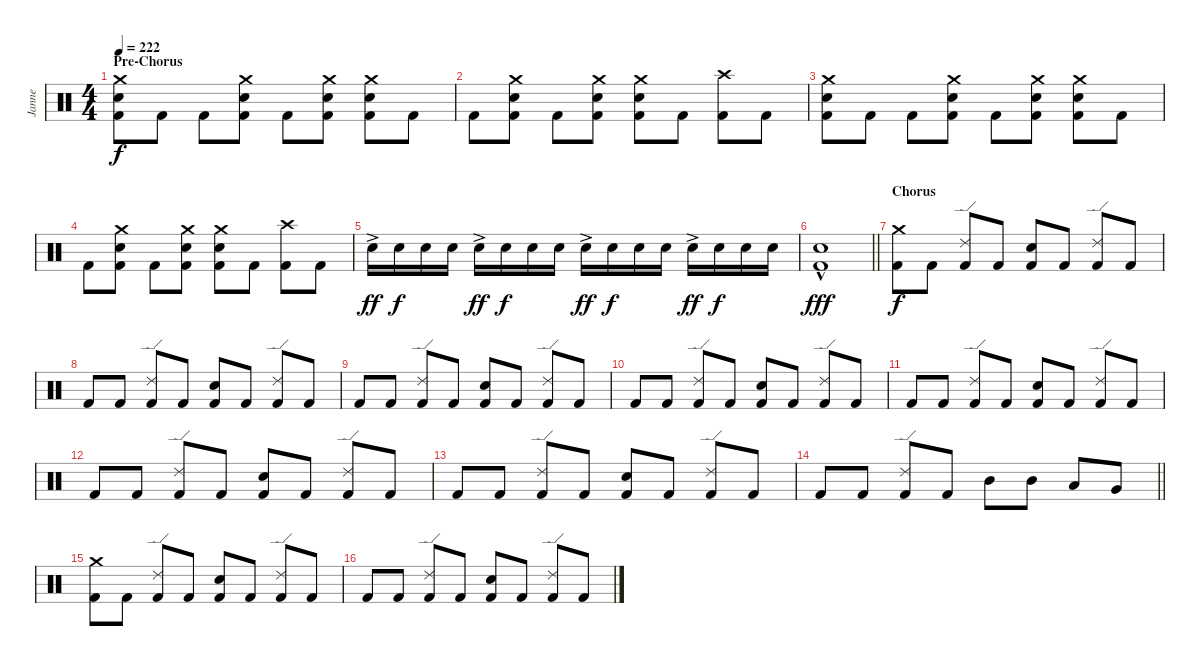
\track ("Janne" "Janne") {instrument percussion}
\staff {score}
\articulation defaults
\ts (4 4)
\section ("" "Pre-Chorus")
\tempo 222
\clef neutral
\ks c
("Kick (hit) 2" "Electric Snare (hit)" "Crash medium (hit)").8{dy f} "Kick (hit) 2".8 "Kick (hit) 2".8 ("Kick (hit) 2" "Electric Snare (hit)" "Crash medium (hit)").8 "Kick (hit) 2".8 ("Kick (hit) 2" "Electric Snare (hit)" "Crash medium (hit)").8 ("Kick (hit) 2" "Electric Snare (hit)" "Crash medium (hit)").8 "Kick (hit) 2".8 |
"Kick (hit) 2".8 ("Kick (hit) 2" "Electric Snare (hit)" "Crash medium (hit)").8 "Kick (hit) 2".8 ("Kick (hit) 2" "Electric Snare (hit)" "Crash medium (hit)").8 ("Kick (hit) 2" "Electric Snare (hit)" "Crash medium (hit)").8 "Kick (hit) 2".8 ("Kick (hit) 2" "Crash high (hit)").8 "Kick (hit) 2".8 |
("Kick (hit) 2" "Electric Snare (hit)" "Crash medium (hit)").8 "Kick (hit) 2".8 "Kick (hit) 2".8 ("Kick (hit) 2" "Electric Snare (hit)" "Crash medium (hit)").8 "Kick (hit) 2".8 ("Kick (hit) 2" "Electric Snare (hit)" "Crash medium (hit)").8 ("Kick (hit) 2" "Electric Snare (hit)" "Crash medium (hit)").8 "Kick (hit) 2".8 |
"Kick (hit) 2".8 ("Kick (hit) 2" "Electric Snare (hit)" "Crash medium (hit)").8 "Kick (hit) 2".8 ("Kick (hit) 2" "Electric Snare (hit)" "Crash medium (hit)").8 ("Kick (hit) 2" "Electric Snare (hit)" "Crash medium (hit)").8 "Kick (hit) 2".8 ("Kick (hit) 2" "Crash high (hit)").8 "Kick (hit) 2".8 |
"Electric Snare (hit)"{ac}.16{dy ff} "Electric Snare (hit)".16{dy f} "Electric Snare (hit)".16 "Electric Snare (hit)".16 "Electric Snare (hit)"{ac}.16{dy ff} "Electric Snare (hit)".16{dy f} "Electric Snare (hit)".16 "Electric Snare (hit)".16 "Electric Snare (hit)"{ac}.16{dy ff} "Electric Snare (hit)".16{dy f} "Electric Snare (hit)".16 "Electric Snare (hit)".16 "Electric Snare (hit)"{ac}.16{dy ff} "Electric Snare (hit)".16{dy f} "Electric Snare (hit)".16 "Electric Snare (hit)".16 |
\barLineRight lightlight
("Kick (hit) 2" "Electric Snare (hit)"{hac}).1{dy fff} |
\section ("" "Chorus")
("Kick (hit) 2" "Crash medium (hit)").8{dy f} "Kick (hit) 2".8 ("Kick (hit) 2" "Ride (edge) 2").8 "Kick (hit) 2".8 ("Kick (hit) 2" "Electric Snare (hit)").8 "Kick (hit) 2".8 ("Kick (hit) 2" "Ride (edge) 2").8 "Kick (hit) 2".8 |
"Kick (hit) 2".8 "Kick (hit) 2".8 ("Kick (hit) 2" "Ride (edge) 2").8 "Kick (hit) 2".8 ("Kick (hit) 2" "Electric Snare (hit)").8 "Kick (hit) 2".8 ("Kick (hit) 2" "Ride (edge) 2").8 "Kick (hit) 2".8 |
"Kick (hit) 2".8 "Kick (hit) 2".8 ("Kick (hit) 2" "Ride (edge) 2").8 "Kick (hit) 2".8 ("Kick (hit) 2" "Electric Snare (hit)").8 "Kick (hit) 2".8 ("Kick (hit) 2" "Ride (edge) 2").8 "Kick (hit) 2".8 |
"Kick (hit) 2".8 "Kick (hit) 2".8 ("Kick (hit) 2" "Ride (edge) 2").8 "Kick (hit) 2".8 ("Kick (hit) 2" "Electric Snare (hit)").8 "Kick (hit) 2".8 ("Kick (hit) 2" "Ride (edge) 2").8 "Kick (hit) 2".8 |
"Kick (hit) 2".8 "Kick (hit) 2".8 ("Kick (hit) 2" "Ride (edge) 2").8 "Kick (hit) 2".8 ("Kick (hit) 2" "Electric Snare (hit)").8 "Kick (hit) 2".8 ("Kick (hit) 2" "Ride (edge) 2").8 "Kick (hit) 2".8 |
"Kick (hit) 2".8 "Kick (hit) 2".8 ("Kick (hit) 2" "Ride (edge) 2").8 "Kick (hit) 2".8 ("Kick (hit) 2" "Electric Snare (hit)").8 "Kick (hit) 2".8 ("Kick (hit) 2" "Ride (edge) 2").8 "Kick (hit) 2".8 |
"Kick (hit) 2".8 "Kick (hit) 2".8 ("Kick (hit) 2" "Ride (edge) 2").8 "Kick (hit) 2".8 ("Kick (hit) 2" "Electric Snare (hit)").8 "Kick (hit) 2".8 ("Kick (hit) 2" "Ride (edge) 2").8 "Kick (hit) 2".8 |
\barLineRight lightlight "Kick (hit) 2".8 "Kick (hit) 2".8
("Kick (hit) 2" "Ride (edge) 2").8 "Kick (hit) 2".8 "Mid Tom (hit)".8 "Mid Tom (hit)".8 "Low Tom (hit)".8 "Very Low Tom (hit)".8 |
\section ("" "")
("Kick (hit) 2" "Crash medium (hit)").8 "Kick (hit) 2".8 ("Kick (hit) 2" "Ride (edge) 2").8 "Kick (hit) 2".8 ("Kick (hit) 2" "Electric Snare (hit)").8 "Kick (hit) 2".8 ("Kick (hit) 2" "Ride (edge) 2").8 "Kick (hit) 2".8 |
"Kick (hit) 2".8 "Kick (hit) 2".8 ("Kick (hit) 2" "Ride (edge) 2").8 "Kick (hit) 2".8 ("Kick (hit) 2" "Electric Snare (hit)").8 "Kick (hit) 2".8 ("Kick (hit) 2" "Ride (edge) 2").8 "Kick (hit) 2".8
